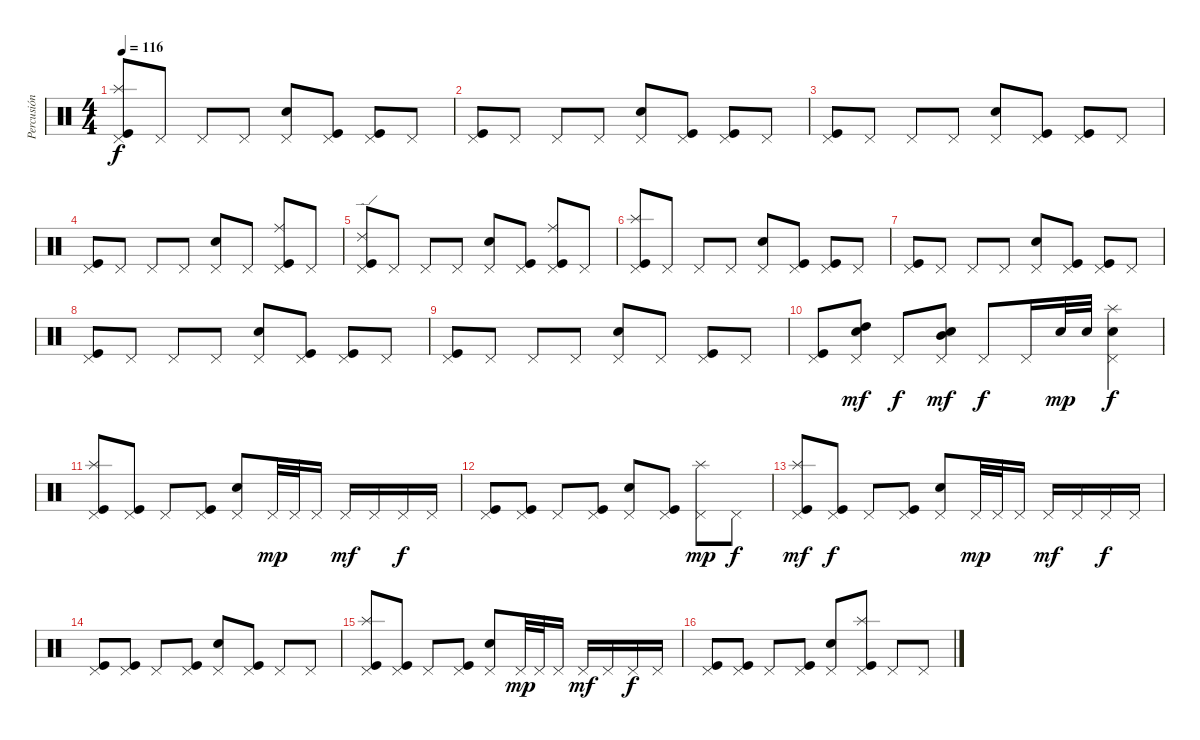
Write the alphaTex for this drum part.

\track ("Percusión" "Percusión") {instrument percussion}
\staff {score}
\articulation defaults
\ts (4 4)
\tempo 116
\clef neutral
\ks c
("Kick (hit)" "Splash (hit)" "Pedal Hi-Hat (hit)").8{dy f} "Pedal Hi-Hat (hit)".8 "Pedal Hi-Hat (hit)".8 "Pedal Hi-Hat (hit)".8 ("Snare (hit) 2" "Pedal Hi-Hat (hit)").8 ("Kick (hit)" "Pedal Hi-Hat (hit)").8 ("Kick (hit)" "Pedal Hi-Hat (hit)").8 "Pedal Hi-Hat (hit)".8 |
("Kick (hit)" "Pedal Hi-Hat (hit)").8 "Pedal Hi-Hat (hit)".8 "Pedal Hi-Hat (hit)".8 "Pedal Hi-Hat (hit)".8 ("Snare (hit) 2" "Pedal Hi-Hat (hit)").8 ("Kick (hit)" "Pedal Hi-Hat (hit)").8 ("Kick (hit)" "Pedal Hi-Hat (hit)").8 "Pedal Hi-Hat (hit)".8 |
("Kick (hit)" "Pedal Hi-Hat (hit)").8 "Pedal Hi-Hat (hit)".8 "Pedal Hi-Hat (hit)".8 "Pedal Hi-Hat (hit)".8 ("Snare (hit) 2" "Pedal Hi-Hat (hit)").8 ("Kick (hit)" "Pedal Hi-Hat (hit)").8 ("Kick (hit)" "Pedal Hi-Hat (hit)").8 "Pedal Hi-Hat (hit)".8 |
("Kick (hit)" "Pedal Hi-Hat (hit)").8 "Pedal Hi-Hat (hit)".8 "Pedal Hi-Hat (hit)".8 "Pedal Hi-Hat (hit)".8 ("Snare (hit) 2" "Pedal Hi-Hat (hit)").8 "Pedal Hi-Hat (hit)".8 ("Kick (hit)" "Ride (middle)" "Pedal Hi-Hat (hit)").8 "Pedal Hi-Hat (hit)".8 |
("Kick (hit)" "Ride (edge) 2" "Pedal Hi-Hat (hit)").8 "Pedal Hi-Hat (hit)".8 "Pedal Hi-Hat (hit)".8 "Pedal Hi-Hat (hit)".8 ("Snare (hit) 2" "Pedal Hi-Hat (hit)").8 ("Kick (hit)" "Pedal Hi-Hat (hit)").8 ("Kick (hit)" "Ride (middle)" "Pedal Hi-Hat (hit)").8 "Pedal Hi-Hat (hit)".8 |
("Kick (hit)" "Splash (hit)" "Pedal Hi-Hat (hit)").8 "Pedal Hi-Hat (hit)".8 "Pedal Hi-Hat (hit)".8 "Pedal Hi-Hat (hit)".8 ("Snare (hit) 2" "Pedal Hi-Hat (hit)").8 ("Kick (hit)" "Pedal Hi-Hat (hit)").8 ("Kick (hit)" "Pedal Hi-Hat (hit)").8 "Pedal Hi-Hat (hit)".8 |
("Kick (hit)" "Pedal Hi-Hat (hit)").8 "Pedal Hi-Hat (hit)".8 "Pedal Hi-Hat (hit)".8 "Pedal Hi-Hat (hit)".8 ("Snare (hit) 2" "Pedal Hi-Hat (hit)").8 ("Kick (hit)" "Pedal Hi-Hat (hit)").8 ("Kick (hit)" "Pedal Hi-Hat (hit)").8 "Pedal Hi-Hat (hit)".8 |
("Kick (hit)" "Pedal Hi-Hat (hit)").8 "Pedal Hi-Hat (hit)".8 "Pedal Hi-Hat (hit)".8 "Pedal Hi-Hat (hit)".8 ("Snare (hit) 2" "Pedal Hi-Hat (hit)").8 ("Kick (hit)" "Pedal Hi-Hat (hit)").8 ("Kick (hit)" "Pedal Hi-Hat (hit)").8 "Pedal Hi-Hat (hit)".8 |
("Kick (hit)" "Pedal Hi-Hat (hit)").8 "Pedal Hi-Hat (hit)".8 "Pedal Hi-Hat (hit)".8 "Pedal Hi-Hat (hit)".8 ("Snare (hit) 2" "Pedal Hi-Hat (hit)").8 "Pedal Hi-Hat (hit)".8 ("Kick (hit)" "Pedal Hi-Hat (hit)").8 "Pedal Hi-Hat (hit)".8 |
("Kick (hit)" "Pedal Hi-Hat (hit)").8 ("Snare (hit) 2" "High Tom (hit)" "Pedal Hi-Hat (hit)").8{dy mf} "Pedal Hi-Hat (hit)".8{dy f} ("Snare (hit) 2" "Mid Tom (hit)" "Pedal Hi-Hat (hit)").8{dy mf} "Pedal Hi-Hat (hit)".8{dy f} "Pedal Hi-Hat (hit)".16 "Snare (hit) 2".32{dy mp} "Snare (hit) 2".32 ("Snare (hit) 2" "Splash (hit)" "Pedal Hi-Hat (hit)").4{dy f} |
("Kick (hit)" "Splash (hit)" "Pedal Hi-Hat (hit)").8 ("Kick (hit)" "Pedal Hi-Hat (hit)").8 "Pedal Hi-Hat (hit)".8 ("Kick (hit)" "Pedal Hi-Hat (hit)").8 ("Snare (hit) 2" "Pedal Hi-Hat (hit)").8 "Pedal Hi-Hat (hit)".32{dy mp} "Pedal Hi-Hat (hit)".32 "Pedal Hi-Hat (hit)".16 "Pedal Hi-Hat (hit)".16{dy mf} "Pedal Hi-Hat (hit)".16 "Pedal Hi-Hat (hit)".16{dy f} "Pedal Hi-Hat (hit)".16 |
("Kick (hit)" "Pedal Hi-Hat (hit)").8 ("Kick (hit)" "Pedal Hi-Hat (hit)").8 "Pedal Hi-Hat (hit)".8 ("Kick (hit)" "Pedal Hi-Hat (hit)").8 ("Snare (hit) 2" "Pedal Hi-Hat (hit)").8 ("Kick (hit)" "Pedal Hi-Hat (hit)").8 ("Splash (hit)" "Pedal Hi-Hat (hit)").8{dy mp} "Pedal Hi-Hat (hit)".8{dy f} |
("Kick (hit)" "Splash (hit)" "Pedal Hi-Hat (hit)").8{dy mf} ("Kick (hit)" "Pedal Hi-Hat (hit)").8{dy f} "Pedal Hi-Hat (hit)".8 ("Kick (hit)" "Pedal Hi-Hat (hit)").8 ("Snare (hit) 2" "Pedal Hi-Hat (hit)").8 "Pedal Hi-Hat (hit)".32{dy mp} "Pedal Hi-Hat (hit)".32 "Pedal Hi-Hat (hit)".16 "Pedal Hi-Hat (hit)".16{dy mf} "Pedal Hi-Hat (hit)".16 "Pedal Hi-Hat (hit)".16{dy f} "Pedal Hi-Hat (hit)".16 |
("Kick (hit)" "Pedal Hi-Hat (hit)").8 ("Kick (hit)" "Pedal Hi-Hat (hit)").8 "Pedal Hi-Hat (hit)".8 ("Kick (hit)" "Pedal Hi-Hat (hit)").8 ("Snare (hit) 2" "Pedal Hi-Hat (hit)").8 ("Kick (hit)" "Pedal Hi-Hat (hit)").8 "Pedal Hi-Hat (hit)".8 "Pedal Hi-Hat (hit)".8 |
("Kick (hit)" "Splash (hit)" "Pedal Hi-Hat (hit)").8 ("Kick (hit)" "Pedal Hi-Hat (hit)").8 "Pedal Hi-Hat (hit)".8 ("Kick (hit)" "Pedal Hi-Hat (hit)").8 ("Snare (hit) 2" "Pedal Hi-Hat (hit)").8 "Pedal Hi-Hat (hit)".32{dy mp} "Pedal Hi-Hat (hit)".32 "Pedal Hi-Hat (hit)".16 "Pedal Hi-Hat (hit)".16{dy mf} "Pedal Hi-Hat (hit)".16 "Pedal Hi-Hat (hit)".16{dy f} "Pedal Hi-Hat (hit)".16 |
("Kick (hit)" "Pedal Hi-Hat (hit)").8 ("Kick (hit)" "Pedal Hi-Hat (hit)").8 "Pedal Hi-Hat (hit)".8 ("Kick (hit)" "Pedal Hi-Hat (hit)").8 ("Snare (hit) 2" "Pedal Hi-Hat (hit)").8 ("Kick (hit)" "Splash (hit)" "Pedal Hi-Hat (hit)").8 "Pedal Hi-Hat (hit)".8 "Pedal Hi-Hat (hit)".8
